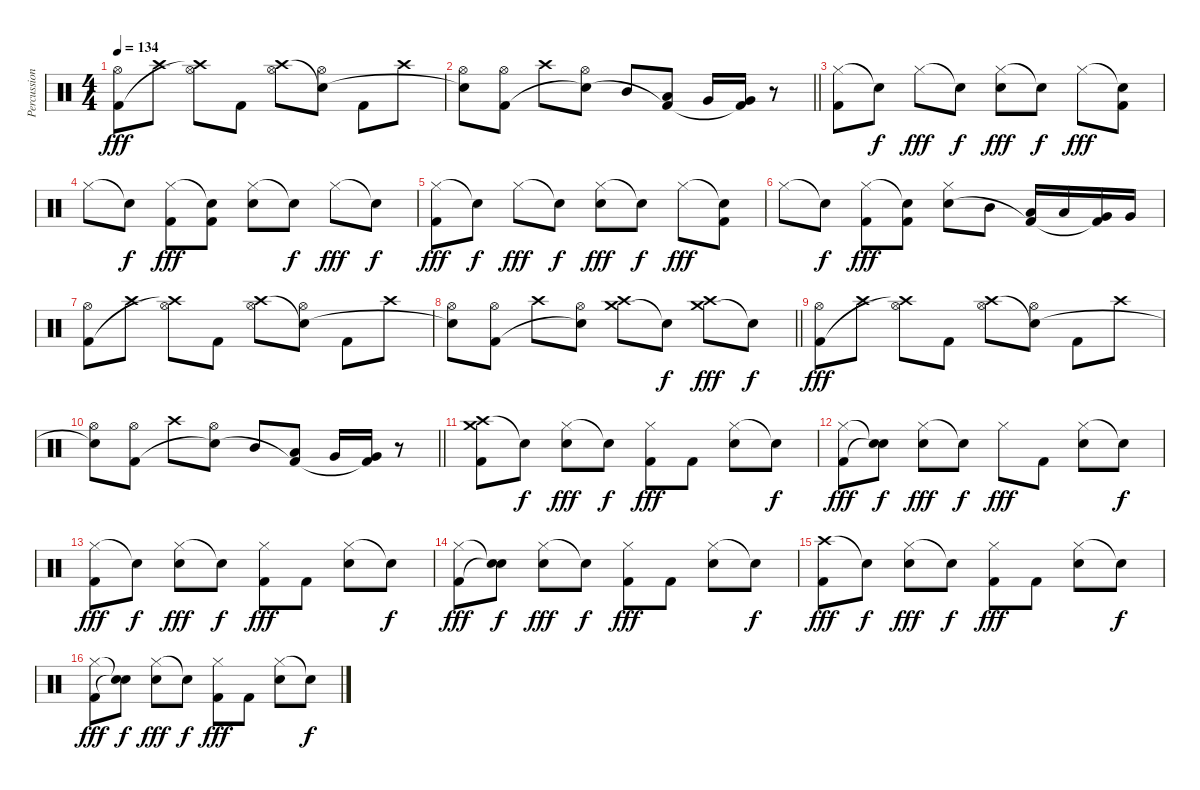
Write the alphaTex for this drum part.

\track ("Percussion" "Percussion") {instrument percussion}
\staff {score}
\articulation defaults
\ts (4 4)
\tempo 134
\clef neutral
\ks c
("Hi-Hat (open)" "Kick (hit) 2").8{dy fff} "Crash high (hit)".8 ("Hi-Hat (open)" "Crash high (hit)"{t}).8 "Kick (hit) 2".8 ("Hi-Hat (open)" "Crash high (hit)").8 ("Hi-Hat (open)" "Snare (hit)"{t}).8 "Kick (hit) 2".8 "Crash high (hit)".8 |
\barLineRight lightlight
("Hi-Hat (open)" "Snare (hit)"{t}).8 ("Hi-Hat (open)" "Kick (hit) 2").8 "Crash high (hit)".8 ("Hi-Hat (open)" "Snare (hit)"{t}).8 "Mid Tom (hit)".8 ("Low Tom (hit)" "Kick (hit) 2"{t}).8 "Very Low Tom (hit)".16 ("Very Low Tom (hit)" "Kick (hit) 2"{t}).16 r.8 |
("Hi-Hat (closed)" "Kick (hit) 2").8 "Snare (hit)"{t}.8{dy f} "Hi-Hat (closed)".8{dy fff} "Snare (hit)"{t}.8{dy f} ("Hi-Hat (closed)" "Snare (hit) 2").8{dy fff} "Snare (hit)"{t}.8{dy f} "Hi-Hat (closed)".8{dy fff} ("Snare (hit)"{t} "Kick (hit) 2").8 |
"Hi-Hat (closed)".8 "Snare (hit)"{t}.8{dy f} ("Hi-Hat (closed)" "Kick (hit) 2").8{dy fff} ("Snare (hit)"{t} "Kick (hit) 2").8 ("Hi-Hat (closed)" "Snare (hit) 2").8 "Snare (hit)"{t}.8{dy f} "Hi-Hat (closed)".8{dy fff} "Snare (hit)"{t}.8{dy f} |
("Hi-Hat (closed)" "Kick (hit) 2").8{dy fff} "Snare (hit)"{t}.8{dy f} "Hi-Hat (closed)".8{dy fff} "Snare (hit)"{t}.8{dy f} ("Hi-Hat (closed)" "Snare (hit) 2").8{dy fff} "Snare (hit)"{t}.8{dy f} "Hi-Hat (closed)".8{dy fff} ("Snare (hit)"{t} "Kick (hit) 2").8 |
"Hi-Hat (closed)".8 "Snare (hit)"{t}.8{dy f} ("Hi-Hat (closed)" "Kick (hit) 2").8{dy fff} ("Snare (hit)"{t} "Kick (hit) 2").8 ("Hi-Hat (closed)" "Snare (hit) 2").8 "Mid Tom (hit)".8 ("Low Tom (hit)" "Kick (hit) 2"{t}).16 "Low Tom (hit)".16 ("Very Low Tom (hit)" "Kick (hit) 2"{t}).16 "Very Low Tom (hit)".16 |
("Hi-Hat (open)" "Kick (hit) 2").8 "Crash high (hit)".8 ("Hi-Hat (open)" "Crash high (hit)"{t}).8 "Kick (hit) 2".8 ("Hi-Hat (open)" "Crash high (hit)").8 ("Hi-Hat (open)" "Snare (hit)"{t}).8 "Kick (hit) 2".8 "Crash high (hit)".8 |
\barLineRight lightlight
("Hi-Hat (open)" "Snare (hit)"{t}).8 ("Hi-Hat (open)" "Kick (hit) 2").8 "Crash high (hit)".8 ("Hi-Hat (open)" "Snare (hit)"{t}).8 ("Crash medium (hit)" "Crash high (hit)").8 "Snare (hit)"{t}.8{dy f} ("Crash medium (hit)" "Crash high (hit)").8{dy fff} "Snare (hit)"{t}.8{dy f} |
("Hi-Hat (open)" "Kick (hit) 2").8{dy fff} "Crash high (hit)".8 ("Hi-Hat (open)" "Crash high (hit)"{t}).8 "Kick (hit) 2".8 ("Hi-Hat (open)" "Crash high (hit)").8 ("Hi-Hat (open)" "Snare (hit)"{t}).8 "Kick (hit) 2".8 "Crash high (hit)".8 |
\barLineRight lightlight
("Hi-Hat (open)" "Snare (hit)"{t}).8 ("Hi-Hat (open)" "Kick (hit) 2").8 "Crash high (hit)".8 ("Hi-Hat (open)" "Snare (hit)"{t}).8 "Mid Tom (hit)".8 ("Low Tom (hit)" "Kick (hit) 2"{t}).8 "Very Low Tom (hit)".16 ("Very Low Tom (hit)" "Kick (hit) 2"{t}).16 r.8 |
("Crash high (hit)" "Crash medium (hit)" "Kick (hit) 2").8 "Snare (hit)"{t}.8{dy f} ("Hi-Hat (closed)" "Snare (hit) 2").8{dy fff} "Snare (hit)"{t}.8{dy f} ("Hi-Hat (closed)" "Kick (hit) 2").8{dy fff} "Kick (hit) 2".8 ("Hi-Hat (closed)" "Snare (hit) 2").8 "Snare (hit)"{t}.8{dy f} |
("Hi-Hat (closed)" "Kick (hit) 2").8{dy fff} ("Snare (hit)"{t} "Snare (hit)"{t}).8{dy f} ("Hi-Hat (closed)" "Snare (hit) 2").8{dy fff} "Snare (hit)"{t}.8{dy f} "Hi-Hat (closed)".8{dy fff} "Kick (hit) 2".8 ("Hi-Hat (closed)" "Snare (hit) 2").8 "Snare (hit)"{t}.8{dy f} |
("Hi-Hat (closed)" "Kick (hit) 2").8{dy fff} "Snare (hit)"{t}.8{dy f} ("Hi-Hat (closed)" "Snare (hit) 2").8{dy fff} "Snare (hit)"{t}.8{dy f} ("Hi-Hat (closed)" "Kick (hit) 2").8{dy fff} "Kick (hit) 2".8 ("Hi-Hat (closed)" "Snare (hit) 2").8 "Snare (hit)"{t}.8{dy f} |
("Hi-Hat (closed)" "Kick (hit) 2").8{dy fff} ("Snare (hit)"{t} "Snare (hit)"{t}).8{dy f} ("Hi-Hat (closed)" "Snare (hit) 2").8{dy fff} "Snare (hit)"{t}.8{dy f} ("Hi-Hat (closed)" "Kick (hit) 2").8{dy fff} "Kick (hit) 2".8 ("Hi-Hat (closed)" "Snare (hit) 2").8 "Snare (hit)"{t}.8{dy f} |
("Crash high (hit)" "Kick (hit) 2").8{dy fff} "Snare (hit)"{t}.8{dy f} ("Hi-Hat (closed)" "Snare (hit) 2").8{dy fff} "Snare (hit)"{t}.8{dy f} ("Hi-Hat (closed)" "Kick (hit) 2").8{dy fff} "Kick (hit) 2".8 ("Hi-Hat (closed)" "Snare (hit) 2").8 "Snare (hit)"{t}.8{dy f} |
("Hi-Hat (closed)" "Kick (hit) 2").8{dy fff} ("Snare (hit)"{t} "Snare (hit)"{t}).8{dy f} ("Hi-Hat (closed)" "Snare (hit) 2").8{dy fff} "Snare (hit)"{t}.8{dy f} ("Hi-Hat (closed)" "Kick (hit) 2").8{dy fff} "Kick (hit) 2".8 ("Hi-Hat (closed)" "Snare (hit) 2").8 "Snare (hit)"{t}.8{dy f}
